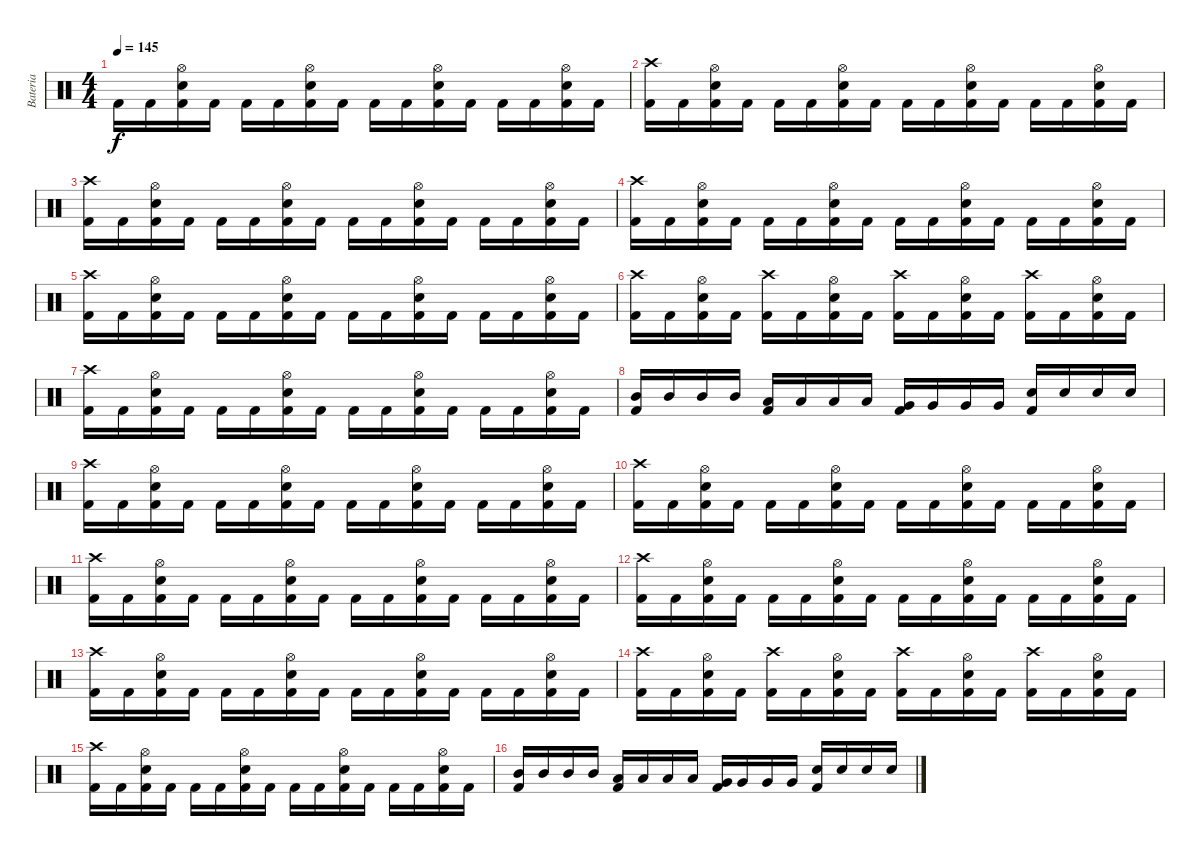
\track ("Bateria" "Bateria") {instrument percussion}
\staff {score}
\articulation defaults
\ts (4 4)
\tempo 145
\clef neutral
\ks c "Kick (hit) 2".16{dy f} "Kick (hit) 2".16
("Snare (hit) 2" "Hi-Hat (open)" "Kick (hit) 2").16 "Kick (hit) 2".16 "Kick (hit) 2".16 "Kick (hit) 2".16 ("Snare (hit) 2" "Hi-Hat (open)" "Kick (hit) 2").16 "Kick (hit) 2".16 "Kick (hit) 2".16 "Kick (hit) 2".16 ("Snare (hit) 2" "Hi-Hat (open)" "Kick (hit) 2").16 "Kick (hit) 2".16 "Kick (hit) 2".16 "Kick (hit) 2".16 ("Snare (hit) 2" "Hi-Hat (open)" "Kick (hit) 2").16 "Kick (hit) 2".16 |
("Crash high (hit)" "Kick (hit) 2").16 "Kick (hit) 2".16 ("Snare (hit) 2" "Hi-Hat (open)" "Kick (hit) 2").16 "Kick (hit) 2".16 "Kick (hit) 2".16 "Kick (hit) 2".16 ("Snare (hit) 2" "Hi-Hat (open)" "Kick (hit) 2").16 "Kick (hit) 2".16 "Kick (hit) 2".16 "Kick (hit) 2".16 ("Snare (hit) 2" "Hi-Hat (open)" "Kick (hit) 2").16 "Kick (hit) 2".16 "Kick (hit) 2".16 "Kick (hit) 2".16 ("Snare (hit) 2" "Hi-Hat (open)" "Kick (hit) 2").16 "Kick (hit) 2".16 |
("Crash high (hit)" "Kick (hit) 2").16 "Kick (hit) 2".16 ("Snare (hit) 2" "Hi-Hat (open)" "Kick (hit) 2").16 "Kick (hit) 2".16 "Kick (hit) 2".16 "Kick (hit) 2".16 ("Snare (hit) 2" "Hi-Hat (open)" "Kick (hit) 2").16 "Kick (hit) 2".16 "Kick (hit) 2".16 "Kick (hit) 2".16 ("Snare (hit) 2" "Hi-Hat (open)" "Kick (hit) 2").16 "Kick (hit) 2".16 "Kick (hit) 2".16 "Kick (hit) 2".16 ("Snare (hit) 2" "Hi-Hat (open)" "Kick (hit) 2").16 "Kick (hit) 2".16 |
("Crash high (hit)" "Kick (hit) 2").16 "Kick (hit) 2".16 ("Snare (hit) 2" "Hi-Hat (open)" "Kick (hit) 2").16 "Kick (hit) 2".16 "Kick (hit) 2".16 "Kick (hit) 2".16 ("Snare (hit) 2" "Hi-Hat (open)" "Kick (hit) 2").16 "Kick (hit) 2".16 "Kick (hit) 2".16 "Kick (hit) 2".16 ("Snare (hit) 2" "Hi-Hat (open)" "Kick (hit) 2").16 "Kick (hit) 2".16 "Kick (hit) 2".16 "Kick (hit) 2".16 ("Snare (hit) 2" "Hi-Hat (open)" "Kick (hit) 2").16 "Kick (hit) 2".16 |
("Crash high (hit)" "Kick (hit) 2").16 "Kick (hit) 2".16 ("Snare (hit) 2" "Hi-Hat (open)" "Kick (hit) 2").16 "Kick (hit) 2".16 "Kick (hit) 2".16 "Kick (hit) 2".16 ("Snare (hit) 2" "Hi-Hat (open)" "Kick (hit) 2").16 "Kick (hit) 2".16 "Kick (hit) 2".16 "Kick (hit) 2".16 ("Snare (hit) 2" "Hi-Hat (open)" "Kick (hit) 2").16 "Kick (hit) 2".16 "Kick (hit) 2".16 "Kick (hit) 2".16 ("Snare (hit) 2" "Hi-Hat (open)" "Kick (hit) 2").16 "Kick (hit) 2".16 |
("Crash high (hit)" "Kick (hit) 2").16 "Kick (hit) 2".16 ("Snare (hit) 2" "Hi-Hat (open)" "Kick (hit) 2").16 "Kick (hit) 2".16 ("Crash high (hit)" "Kick (hit) 2").16 "Kick (hit) 2".16 ("Snare (hit) 2" "Hi-Hat (open)" "Kick (hit) 2").16 "Kick (hit) 2".16 ("Crash high (hit)" "Kick (hit) 2").16 "Kick (hit) 2".16 ("Snare (hit) 2" "Hi-Hat (open)" "Kick (hit) 2").16 "Kick (hit) 2".16 ("Crash high (hit)" "Kick (hit) 2").16 "Kick (hit) 2".16 ("Snare (hit) 2" "Hi-Hat (open)" "Kick (hit) 2").16 "Kick (hit) 2".16 |
("Crash high (hit)" "Kick (hit) 2").16 "Kick (hit) 2".16 ("Snare (hit) 2" "Hi-Hat (open)" "Kick (hit) 2").16 "Kick (hit) 2".16 "Kick (hit) 2".16 "Kick (hit) 2".16 ("Snare (hit) 2" "Hi-Hat (open)" "Kick (hit) 2").16 "Kick (hit) 2".16 "Kick (hit) 2".16 "Kick (hit) 2".16 ("Snare (hit) 2" "Hi-Hat (open)" "Kick (hit) 2").16 "Kick (hit) 2".16 "Kick (hit) 2".16 "Kick (hit) 2".16 ("Snare (hit) 2" "Hi-Hat (open)" "Kick (hit) 2").16 "Kick (hit) 2".16 |
("Kick (hit) 2" "Mid Tom (hit)").16 "Mid Tom (hit)".16 "Mid Tom (hit)".16 "Mid Tom (hit)".16 ("Kick (hit) 2" "Low Tom (hit)").16 "Low Tom (hit)".16 "Low Tom (hit)".16 "Low Tom (hit)".16 ("Kick (hit) 2" "Very Low Tom (hit)").16 "Very Low Tom (hit)".16 "Very Low Tom (hit)".16 "Very Low Tom (hit)".16 ("Kick (hit) 2" "Snare (hit) 2").16 "Snare (hit) 2".16 "Snare (hit) 2".16 "Snare (hit) 2".16 |
("Crash high (hit)" "Kick (hit) 2").16 "Kick (hit) 2".16 ("Snare (hit) 2" "Hi-Hat (open)" "Kick (hit) 2").16 "Kick (hit) 2".16 "Kick (hit) 2".16 "Kick (hit) 2".16 ("Snare (hit) 2" "Hi-Hat (open)" "Kick (hit) 2").16 "Kick (hit) 2".16 "Kick (hit) 2".16 "Kick (hit) 2".16 ("Snare (hit) 2" "Hi-Hat (open)" "Kick (hit) 2").16 "Kick (hit) 2".16 "Kick (hit) 2".16 "Kick (hit) 2".16 ("Snare (hit) 2" "Hi-Hat (open)" "Kick (hit) 2").16 "Kick (hit) 2".16 |
("Crash high (hit)" "Kick (hit) 2").16 "Kick (hit) 2".16 ("Snare (hit) 2" "Hi-Hat (open)" "Kick (hit) 2").16 "Kick (hit) 2".16 "Kick (hit) 2".16 "Kick (hit) 2".16 ("Snare (hit) 2" "Hi-Hat (open)" "Kick (hit) 2").16 "Kick (hit) 2".16 "Kick (hit) 2".16 "Kick (hit) 2".16 ("Snare (hit) 2" "Hi-Hat (open)" "Kick (hit) 2").16 "Kick (hit) 2".16 "Kick (hit) 2".16 "Kick (hit) 2".16 ("Snare (hit) 2" "Hi-Hat (open)" "Kick (hit) 2").16 "Kick (hit) 2".16 |
("Crash high (hit)" "Kick (hit) 2").16 "Kick (hit) 2".16 ("Snare (hit) 2" "Hi-Hat (open)" "Kick (hit) 2").16 "Kick (hit) 2".16 "Kick (hit) 2".16 "Kick (hit) 2".16 ("Snare (hit) 2" "Hi-Hat (open)" "Kick (hit) 2").16 "Kick (hit) 2".16 "Kick (hit) 2".16 "Kick (hit) 2".16 ("Snare (hit) 2" "Hi-Hat (open)" "Kick (hit) 2").16 "Kick (hit) 2".16 "Kick (hit) 2".16 "Kick (hit) 2".16 ("Snare (hit) 2" "Hi-Hat (open)" "Kick (hit) 2").16 "Kick (hit) 2".16 |
("Crash high (hit)" "Kick (hit) 2").16 "Kick (hit) 2".16 ("Snare (hit) 2" "Hi-Hat (open)" "Kick (hit) 2").16 "Kick (hit) 2".16 "Kick (hit) 2".16 "Kick (hit) 2".16 ("Snare (hit) 2" "Hi-Hat (open)" "Kick (hit) 2").16 "Kick (hit) 2".16 "Kick (hit) 2".16 "Kick (hit) 2".16 ("Snare (hit) 2" "Hi-Hat (open)" "Kick (hit) 2").16 "Kick (hit) 2".16 "Kick (hit) 2".16 "Kick (hit) 2".16 ("Snare (hit) 2" "Hi-Hat (open)" "Kick (hit) 2").16 "Kick (hit) 2".16 |
("Crash high (hit)" "Kick (hit) 2").16 "Kick (hit) 2".16 ("Snare (hit) 2" "Hi-Hat (open)" "Kick (hit) 2").16 "Kick (hit) 2".16 "Kick (hit) 2".16 "Kick (hit) 2".16 ("Snare (hit) 2" "Hi-Hat (open)" "Kick (hit) 2").16 "Kick (hit) 2".16 "Kick (hit) 2".16 "Kick (hit) 2".16 ("Snare (hit) 2" "Hi-Hat (open)" "Kick (hit) 2").16 "Kick (hit) 2".16 "Kick (hit) 2".16 "Kick (hit) 2".16 ("Snare (hit) 2" "Hi-Hat (open)" "Kick (hit) 2").16 "Kick (hit) 2".16 |
("Crash high (hit)" "Kick (hit) 2").16 "Kick (hit) 2".16 ("Snare (hit) 2" "Hi-Hat (open)" "Kick (hit) 2").16 "Kick (hit) 2".16 ("Crash high (hit)" "Kick (hit) 2").16 "Kick (hit) 2".16 ("Snare (hit) 2" "Hi-Hat (open)" "Kick (hit) 2").16 "Kick (hit) 2".16 ("Crash high (hit)" "Kick (hit) 2").16 "Kick (hit) 2".16 ("Snare (hit) 2" "Hi-Hat (open)" "Kick (hit) 2").16 "Kick (hit) 2".16 ("Crash high (hit)" "Kick (hit) 2").16 "Kick (hit) 2".16 ("Snare (hit) 2" "Hi-Hat (open)" "Kick (hit) 2").16 "Kick (hit) 2".16 |
("Crash high (hit)" "Kick (hit) 2").16 "Kick (hit) 2".16 ("Snare (hit) 2" "Hi-Hat (open)" "Kick (hit) 2").16 "Kick (hit) 2".16 "Kick (hit) 2".16 "Kick (hit) 2".16 ("Snare (hit) 2" "Hi-Hat (open)" "Kick (hit) 2").16 "Kick (hit) 2".16 "Kick (hit) 2".16 "Kick (hit) 2".16 ("Snare (hit) 2" "Hi-Hat (open)" "Kick (hit) 2").16 "Kick (hit) 2".16 "Kick (hit) 2".16 "Kick (hit) 2".16 ("Snare (hit) 2" "Hi-Hat (open)" "Kick (hit) 2").16 "Kick (hit) 2".16 |
("Kick (hit) 2" "Mid Tom (hit)").16 "Mid Tom (hit)".16 "Mid Tom (hit)".16 "Mid Tom (hit)".16 ("Kick (hit) 2" "Low Tom (hit)").16 "Low Tom (hit)".16 "Low Tom (hit)".16 "Low Tom (hit)".16 ("Kick (hit) 2" "Very Low Tom (hit)").16 "Very Low Tom (hit)".16 "Very Low Tom (hit)".16 "Very Low Tom (hit)".16 ("Kick (hit) 2" "Snare (hit) 2").16 "Snare (hit) 2".16 "Snare (hit) 2".16 "Snare (hit) 2".16
